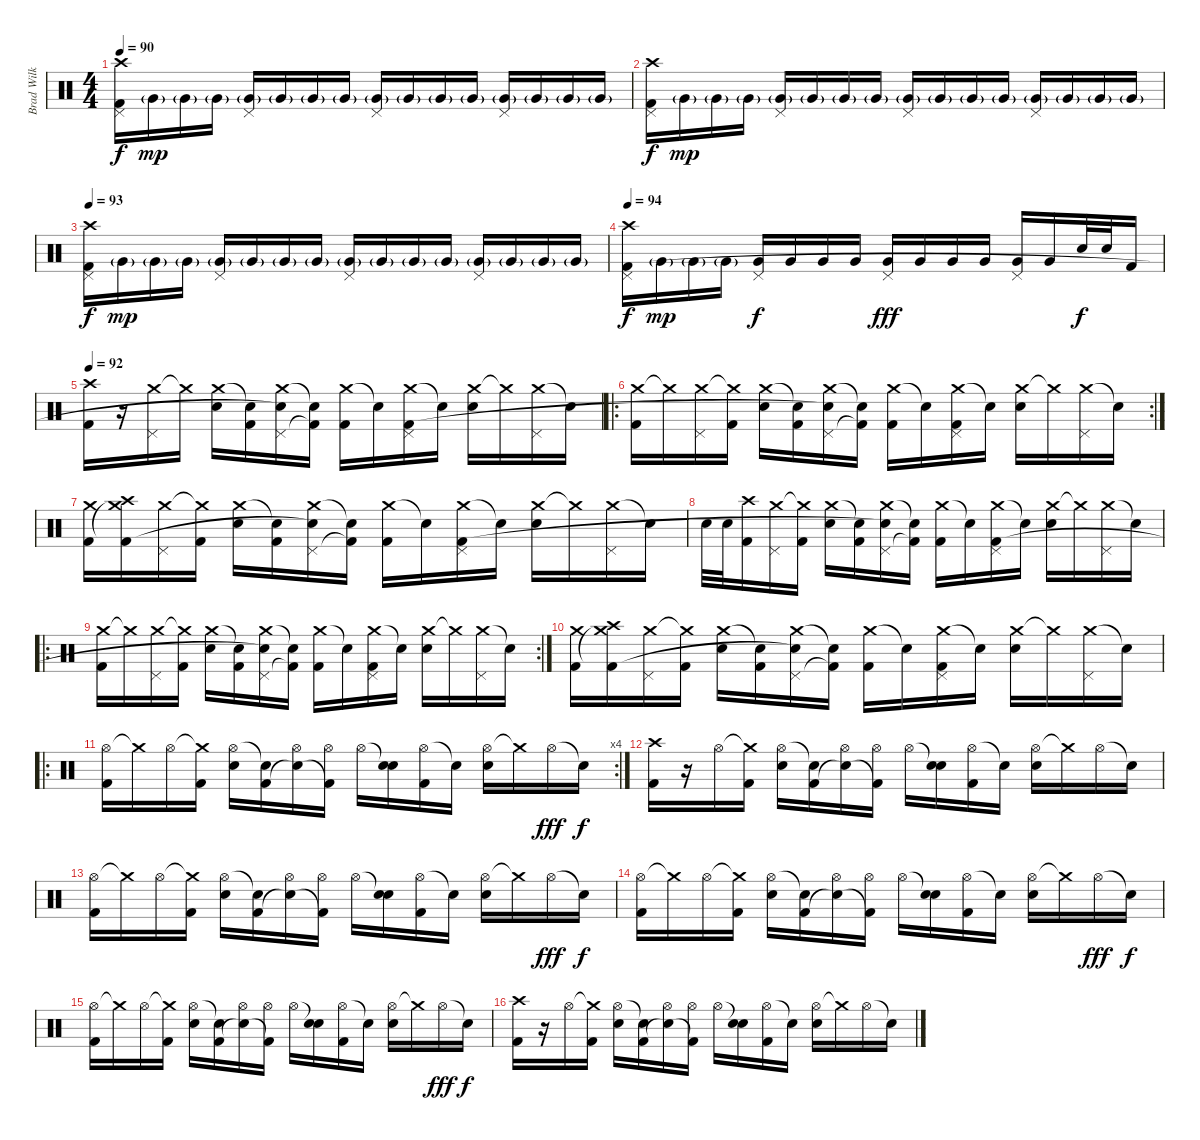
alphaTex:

\track ("Brad Wilk (Drums)" "Brad Wilk ") {instrument percussion}
\staff {score}
\articulation defaults
\ts (4 4)
\tempo 90
\clef neutral
\ks c
("Crash high (hit)" "Pedal Hi-Hat (hit)" "Kick (hit) 2").16{dy f volume 14} "Very Low Tom (hit)"{g}.16{dy mp volume 10} "Very Low Tom (hit)"{g}.16 "Very Low Tom (hit)"{g}.16 ("Very Low Tom (hit)"{g} "Pedal Hi-Hat (hit)").16 "Very Low Tom (hit)"{g}.16 "Very Low Tom (hit)"{g}.16 "Very Low Tom (hit)"{g}.16 ("Very Low Tom (hit)"{g} "Pedal Hi-Hat (hit)").16 "Very Low Tom (hit)"{g}.16 "Very Low Tom (hit)"{g}.16 "Very Low Tom (hit)"{g}.16 ("Very Low Tom (hit)"{g} "Pedal Hi-Hat (hit)").16 "Very Low Tom (hit)"{g}.16 "Very Low Tom (hit)"{g}.16 "Very Low Tom (hit)"{g}.16 |
("Crash high (hit)" "Pedal Hi-Hat (hit)" "Kick (hit) 2").16{dy f volume 14} "Very Low Tom (hit)"{g}.16{dy mp volume 10} "Very Low Tom (hit)"{g}.16 "Very Low Tom (hit)"{g}.16 ("Very Low Tom (hit)"{g} "Pedal Hi-Hat (hit)").16 "Very Low Tom (hit)"{g}.16 "Very Low Tom (hit)"{g}.16 "Very Low Tom (hit)"{g}.16 ("Very Low Tom (hit)"{g} "Pedal Hi-Hat (hit)").16 "Very Low Tom (hit)"{g}.16 "Very Low Tom (hit)"{g}.16 "Very Low Tom (hit)"{g}.16 ("Very Low Tom (hit)"{g} "Pedal Hi-Hat (hit)").16 "Very Low Tom (hit)"{g}.16 "Very Low Tom (hit)"{g}.16 "Very Low Tom (hit)"{g}.16 |
\tempo 93
("Crash high (hit)" "Pedal Hi-Hat (hit)" "Kick (hit) 2").16{dy f volume 14} "Very Low Tom (hit)"{g}.16{dy mp volume 10} "Very Low Tom (hit)"{g}.16 "Very Low Tom (hit)"{g}.16 ("Very Low Tom (hit)"{g} "Pedal Hi-Hat (hit)").16 "Very Low Tom (hit)"{g}.16 "Very Low Tom (hit)"{g}.16 "Very Low Tom (hit)"{g}.16 ("Very Low Tom (hit)"{g} "Pedal Hi-Hat (hit)").16 "Very Low Tom (hit)"{g}.16 "Very Low Tom (hit)"{g}.16 "Very Low Tom (hit)"{g}.16 ("Very Low Tom (hit)"{g} "Pedal Hi-Hat (hit)").16 "Very Low Tom (hit)"{g}.16 "Very Low Tom (hit)"{g}.16 "Very Low Tom (hit)"{g}.16 |
\tempo 94
("Crash high (hit)" "Pedal Hi-Hat (hit)" "Kick (hit) 2").16{dy f volume 14} "Very Low Tom (hit)"{g}.16{dy mp} "Very Low Tom (hit)"{g}.16 "Very Low Tom (hit)"{g}.16 ("Very Low Tom (hit)" "Pedal Hi-Hat (hit)").16{dy f} "Very Low Tom (hit)".16 "Very Low Tom (hit)".16 "Very Low Tom (hit)".16 ("Very Low Tom (hit)" "Pedal Hi-Hat (hit)").16{dy fff} "Very Low Tom (hit)".16 "Very Low Tom (hit)".16 "Very Low Tom (hit)".16 ("Very Low Tom (hit)" "Pedal Hi-Hat (hit)").16 "Very Low Tom (hit)".16 "Snare (hit) 2".32{dy f} "Snare (hit) 2".32 "Kick (hit) 2".16 |
\tempo 92
("Crash high (hit)" "Kick (hit) 2").16 r.16 ("Crash medium (hit)" "Pedal Hi-Hat (hit)").16 "Crash medium (hit)"{t}.16 ("Crash medium (hit)" "Snare (hit) 2").16 ("Snare (hit)"{t} "Kick (hit) 2").16 ("Crash medium (hit)" "Pedal Hi-Hat (hit)" "Snare (hit)"{t}).16 ("Snare (hit)"{t} "Kick (hit) 2"{t}).16 ("Crash medium (hit)" "Kick (hit) 2").16 "Snare (hit)"{t}.16 ("Crash medium (hit)" "Pedal Hi-Hat (hit)" "Kick (hit) 2").16 "Snare (hit)"{t}.16 ("Crash medium (hit)" "Snare (hit) 2").16 "Crash medium (hit)"{t}.16 ("Crash medium (hit)" "Pedal Hi-Hat (hit)").16 "Snare (hit)"{t}.16 |
\ro
\rc 2
("Crash medium (hit)" "Kick (hit) 2").16 "Crash medium (hit)"{t}.16 ("Crash medium (hit)" "Pedal Hi-Hat (hit)").16 ("Crash medium (hit)"{t} "Kick (hit) 2").16 ("Crash medium (hit)" "Snare (hit) 2").16 ("Snare (hit)"{t} "Kick (hit) 2").16 ("Crash medium (hit)" "Pedal Hi-Hat (hit)" "Snare (hit)"{t}).16 ("Snare (hit)"{t} "Kick (hit) 2"{t}).16 ("Crash medium (hit)" "Kick (hit) 2").16 "Snare (hit)"{t}.16 ("Crash medium (hit)" "Pedal Hi-Hat (hit)" "Kick (hit) 2").16 "Snare (hit)"{t}.16 ("Crash medium (hit)" "Snare (hit) 2").16 "Crash medium (hit)"{t}.16 ("Crash medium (hit)" "Pedal Hi-Hat (hit)").16 "Snare (hit)"{t}.16 |
("Crash medium (hit)" "Kick (hit) 2").16 ("Crash high (hit)" "Crash medium (hit)"{t} "Kick (hit) 2").16 ("Crash medium (hit)" "Pedal Hi-Hat (hit)").16 ("Crash medium (hit)"{t} "Kick (hit) 2").16 ("Crash medium (hit)" "Snare (hit) 2").16 ("Snare (hit)"{t} "Kick (hit) 2").16 ("Crash medium (hit)" "Pedal Hi-Hat (hit)" "Snare (hit)"{t}).16 ("Snare (hit)"{t} "Kick (hit) 2"{t}).16 ("Crash medium (hit)" "Kick (hit) 2").16 "Snare (hit)"{t}.16 ("Crash medium (hit)" "Pedal Hi-Hat (hit)" "Kick (hit) 2").16 "Snare (hit)"{t}.16 ("Crash medium (hit)" "Snare (hit) 2").16 "Crash medium (hit)"{t}.16 ("Crash medium (hit)" "Pedal Hi-Hat (hit)").16 "Snare (hit)"{t}.16 |
"Snare (hit) 2".32 "Snare (hit) 2".32 ("Crash high (hit)" "Kick (hit) 2").16 ("Crash medium (hit)" "Pedal Hi-Hat (hit)").16 ("Crash medium (hit)"{t} "Kick (hit) 2").16 ("Crash medium (hit)" "Snare (hit) 2").16 ("Snare (hit)"{t} "Kick (hit) 2").16 ("Crash medium (hit)" "Pedal Hi-Hat (hit)" "Snare (hit)"{t}).16 ("Snare (hit)"{t} "Kick (hit) 2"{t}).16 ("Crash medium (hit)" "Kick (hit) 2").16 "Snare (hit)"{t}.16 ("Crash medium (hit)" "Pedal Hi-Hat (hit)" "Kick (hit) 2").16 "Snare (hit)"{t}.16 ("Crash medium (hit)" "Snare (hit) 2").16 "Crash medium (hit)"{t}.16 ("Crash medium (hit)" "Pedal Hi-Hat (hit)").16 "Snare (hit)"{t}.16 |
\ro
\rc 2
("Crash medium (hit)" "Kick (hit) 2").16 "Crash medium (hit)"{t}.16 ("Crash medium (hit)" "Pedal Hi-Hat (hit)").16 ("Crash medium (hit)"{t} "Kick (hit) 2").16 ("Crash medium (hit)" "Snare (hit) 2").16 ("Snare (hit)"{t} "Kick (hit) 2").16 ("Crash medium (hit)" "Pedal Hi-Hat (hit)" "Snare (hit)"{t}).16 ("Snare (hit)"{t} "Kick (hit) 2"{t}).16 ("Crash medium (hit)" "Kick (hit) 2").16 "Snare (hit)"{t}.16 ("Crash medium (hit)" "Pedal Hi-Hat (hit)" "Kick (hit) 2").16 "Snare (hit)"{t}.16 ("Crash medium (hit)" "Snare (hit) 2").16 "Crash medium (hit)"{t}.16 ("Crash medium (hit)" "Pedal Hi-Hat (hit)").16 "Snare (hit)"{t}.16 |
("Crash medium (hit)" "Kick (hit) 2").16 ("Crash high (hit)" "Crash medium (hit)"{t} "Kick (hit) 2").16 ("Crash medium (hit)" "Pedal Hi-Hat (hit)").16 ("Crash medium (hit)"{t} "Kick (hit) 2").16 ("Crash medium (hit)" "Snare (hit) 2").16 ("Snare (hit)"{t} "Kick (hit) 2").16 ("Crash medium (hit)" "Pedal Hi-Hat (hit)" "Snare (hit)"{t}).16 ("Snare (hit)"{t} "Kick (hit) 2"{t}).16 ("Crash medium (hit)" "Kick (hit) 2").16 "Snare (hit)"{t}.16 ("Crash medium (hit)" "Pedal Hi-Hat (hit)" "Kick (hit) 2").16 "Snare (hit)"{t}.16 ("Crash medium (hit)" "Snare (hit) 2").16 "Crash medium (hit)"{t}.16 ("Crash medium (hit)" "Pedal Hi-Hat (hit)").16 "Snare (hit)"{t}.16 |
\ro
\rc 4
("Hi-Hat (open)" "Kick (hit) 2").16{volume 11} "Crash medium (hit)"{t}.16 "Hi-Hat (open)".16 ("Crash medium (hit)"{t} "Kick (hit) 2").16 ("Hi-Hat (open)" "Snare (hit) 2").16 ("Snare (hit)"{t} "Kick (hit) 2").16 ("Hi-Hat (open)" "Snare (hit)"{t}).16 ("Hi-Hat (open)" "Kick (hit) 2"{t}).16 "Hi-Hat (open)".16 ("Snare (hit)"{t} "Snare (hit) 2").16 ("Hi-Hat (open)" "Kick (hit) 2").16 "Snare (hit)"{t}.16 ("Hi-Hat (open)" "Snare (hit) 2").16 "Crash medium (hit)"{t}.16 "Hi-Hat (open)".16{dy fff} "Snare (hit)"{t}.16{dy f} |
("Crash high (hit)" "Kick (hit) 2").16 r.16 "Hi-Hat (open)".16 ("Crash medium (hit)"{t} "Kick (hit) 2").16 ("Hi-Hat (open)" "Snare (hit) 2").16 ("Snare (hit)"{t} "Kick (hit) 2").16 ("Hi-Hat (open)" "Snare (hit)"{t}).16 ("Hi-Hat (open)" "Kick (hit) 2"{t}).16 "Hi-Hat (open)".16 ("Snare (hit)"{t} "Snare (hit) 2").16 ("Hi-Hat (open)" "Kick (hit) 2").16 "Snare (hit)"{t}.16 ("Hi-Hat (open)" "Snare (hit) 2").16 "Crash medium (hit)"{t}.16 "Hi-Hat (open)".16 "Snare (hit)"{t}.16 |
("Hi-Hat (open)" "Kick (hit) 2").16 "Crash medium (hit)"{t}.16 "Hi-Hat (open)".16 ("Crash medium (hit)"{t} "Kick (hit) 2").16 ("Hi-Hat (open)" "Snare (hit) 2").16 ("Snare (hit)"{t} "Kick (hit) 2").16 ("Hi-Hat (open)" "Snare (hit)"{t}).16 ("Hi-Hat (open)" "Kick (hit) 2"{t}).16 "Hi-Hat (open)".16 ("Snare (hit)"{t} "Snare (hit) 2").16 ("Hi-Hat (open)" "Kick (hit) 2").16 "Snare (hit)"{t}.16 ("Hi-Hat (open)" "Snare (hit) 2").16 "Crash medium (hit)"{t}.16 "Hi-Hat (open)".16{dy fff} "Snare (hit)"{t}.16{dy f} |
("Hi-Hat (open)" "Kick (hit) 2").16 "Crash medium (hit)"{t}.16 "Hi-Hat (open)".16 ("Crash medium (hit)"{t} "Kick (hit) 2").16 ("Hi-Hat (open)" "Snare (hit) 2").16 ("Snare (hit)"{t} "Kick (hit) 2").16 ("Hi-Hat (open)" "Snare (hit)"{t}).16 ("Hi-Hat (open)" "Kick (hit) 2"{t}).16 "Hi-Hat (open)".16 ("Snare (hit)"{t} "Snare (hit) 2").16 ("Hi-Hat (open)" "Kick (hit) 2").16 "Snare (hit)"{t}.16 ("Hi-Hat (open)" "Snare (hit) 2").16 "Crash medium (hit)"{t}.16 "Hi-Hat (open)".16{dy fff} "Snare (hit)"{t}.16{dy f} |
("Hi-Hat (open)" "Kick (hit) 2").16 "Crash medium (hit)"{t}.16 "Hi-Hat (open)".16 ("Crash medium (hit)"{t} "Kick (hit) 2").16 ("Hi-Hat (open)" "Snare (hit) 2").16 ("Snare (hit)"{t} "Kick (hit) 2").16 ("Hi-Hat (open)" "Snare (hit)"{t}).16 ("Hi-Hat (open)" "Kick (hit) 2"{t}).16 "Hi-Hat (open)".16 ("Snare (hit)"{t} "Snare (hit) 2").16 ("Hi-Hat (open)" "Kick (hit) 2").16 "Snare (hit)"{t}.16 ("Hi-Hat (open)" "Snare (hit) 2").16 "Crash medium (hit)"{t}.16 "Hi-Hat (open)".16{dy fff} "Snare (hit)"{t}.16{dy f} |
("Crash high (hit)" "Kick (hit) 2").16 r.16 "Hi-Hat (open)".16 ("Crash medium (hit)"{t} "Kick (hit) 2").16 ("Hi-Hat (open)" "Snare (hit) 2").16 ("Snare (hit)"{t} "Kick (hit) 2").16 ("Hi-Hat (open)" "Snare (hit)"{t}).16 ("Hi-Hat (open)" "Kick (hit) 2"{t}).16 "Hi-Hat (open)".16 ("Snare (hit)"{t} "Snare (hit) 2").16 ("Hi-Hat (open)" "Kick (hit) 2").16 "Snare (hit)"{t}.16 ("Hi-Hat (open)" "Snare (hit) 2").16 "Crash medium (hit)"{t}.16 "Hi-Hat (open)".16 "Snare (hit)"{t}.16
